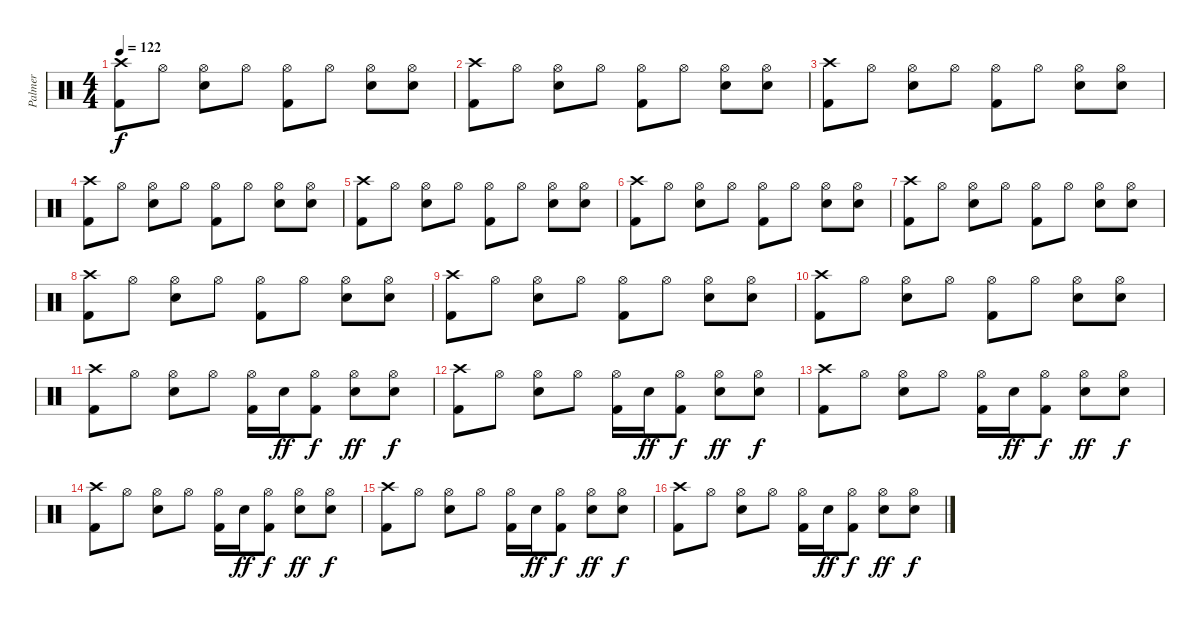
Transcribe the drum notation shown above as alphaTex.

\track ("Palmer" "Palmer") {instrument percussion}
\staff {score}
\articulation defaults
\ts (4 4)
\tempo 122
\clef neutral
\ks c
("Crash high (hit)" "Kick (hit) 2").8{dy f} "Hi-Hat (open)".8 ("Hi-Hat (open)" "Electric Snare (hit)").8 "Hi-Hat (open)".8 ("Hi-Hat (open)" "Kick (hit) 2").8 "Hi-Hat (open)".8 ("Hi-Hat (open)" "Electric Snare (hit)").8 ("Hi-Hat (open)" "Electric Snare (hit)").8 |
("Crash high (hit)" "Kick (hit) 2").8 "Hi-Hat (open)".8 ("Hi-Hat (open)" "Electric Snare (hit)").8 "Hi-Hat (open)".8 ("Hi-Hat (open)" "Kick (hit) 2").8 "Hi-Hat (open)".8 ("Hi-Hat (open)" "Electric Snare (hit)").8 ("Hi-Hat (open)" "Electric Snare (hit)").8 |
("Crash high (hit)" "Kick (hit) 2").8 "Hi-Hat (open)".8 ("Hi-Hat (open)" "Electric Snare (hit)").8 "Hi-Hat (open)".8 ("Hi-Hat (open)" "Kick (hit) 2").8 "Hi-Hat (open)".8 ("Hi-Hat (open)" "Electric Snare (hit)").8 ("Hi-Hat (open)" "Electric Snare (hit)").8 |
("Crash high (hit)" "Kick (hit) 2").8 "Hi-Hat (open)".8 ("Hi-Hat (open)" "Electric Snare (hit)").8 "Hi-Hat (open)".8 ("Hi-Hat (open)" "Kick (hit) 2").8 "Hi-Hat (open)".8 ("Hi-Hat (open)" "Electric Snare (hit)").8 ("Hi-Hat (open)" "Electric Snare (hit)").8 |
("Crash high (hit)" "Kick (hit) 2").8 "Hi-Hat (open)".8 ("Hi-Hat (open)" "Electric Snare (hit)").8 "Hi-Hat (open)".8 ("Hi-Hat (open)" "Kick (hit) 2").8 "Hi-Hat (open)".8 ("Hi-Hat (open)" "Electric Snare (hit)").8 ("Hi-Hat (open)" "Electric Snare (hit)").8 |
("Crash high (hit)" "Kick (hit) 2").8 "Hi-Hat (open)".8 ("Hi-Hat (open)" "Electric Snare (hit)").8 "Hi-Hat (open)".8 ("Hi-Hat (open)" "Kick (hit) 2").8 "Hi-Hat (open)".8 ("Hi-Hat (open)" "Electric Snare (hit)").8 ("Hi-Hat (open)" "Electric Snare (hit)").8 |
("Crash high (hit)" "Kick (hit) 2").8 "Hi-Hat (open)".8 ("Hi-Hat (open)" "Electric Snare (hit)").8 "Hi-Hat (open)".8 ("Hi-Hat (open)" "Kick (hit) 2").8 "Hi-Hat (open)".8 ("Hi-Hat (open)" "Electric Snare (hit)").8 ("Hi-Hat (open)" "Electric Snare (hit)").8 |
("Crash high (hit)" "Kick (hit) 2").8 "Hi-Hat (open)".8 ("Hi-Hat (open)" "Electric Snare (hit)").8 "Hi-Hat (open)".8 ("Hi-Hat (open)" "Kick (hit) 2").8 "Hi-Hat (open)".8 ("Hi-Hat (open)" "Electric Snare (hit)").8 ("Hi-Hat (open)" "Electric Snare (hit)").8 |
("Crash high (hit)" "Kick (hit) 2").8 "Hi-Hat (open)".8 ("Hi-Hat (open)" "Electric Snare (hit)").8 "Hi-Hat (open)".8 ("Hi-Hat (open)" "Kick (hit) 2").8 "Hi-Hat (open)".8 ("Hi-Hat (open)" "Electric Snare (hit)").8 ("Hi-Hat (open)" "Electric Snare (hit)").8 |
("Crash high (hit)" "Kick (hit) 2").8 "Hi-Hat (open)".8 ("Hi-Hat (open)" "Electric Snare (hit)").8 "Hi-Hat (open)".8 ("Hi-Hat (open)" "Kick (hit) 2").8 "Hi-Hat (open)".8 ("Hi-Hat (open)" "Electric Snare (hit)").8 ("Hi-Hat (open)" "Electric Snare (hit)").8 |
("Crash high (hit)" "Kick (hit) 2").8 "Hi-Hat (open)".8 ("Hi-Hat (open)" "Electric Snare (hit)").8 "Hi-Hat (open)".8 ("Hi-Hat (open)" "Kick (hit) 2").16 "Electric Snare (hit)".16{dy ff} ("Hi-Hat (open)" "Kick (hit) 2").8{dy f} ("Hi-Hat (open)" "Electric Snare (hit)").8{dy ff} ("Hi-Hat (open)" "Electric Snare (hit)").8{dy f} |
("Crash high (hit)" "Kick (hit) 2").8 "Hi-Hat (open)".8 ("Hi-Hat (open)" "Electric Snare (hit)").8 "Hi-Hat (open)".8 ("Hi-Hat (open)" "Kick (hit) 2").16 "Electric Snare (hit)".16{dy ff} ("Hi-Hat (open)" "Kick (hit) 2").8{dy f} ("Hi-Hat (open)" "Electric Snare (hit)").8{dy ff} ("Hi-Hat (open)" "Electric Snare (hit)").8{dy f} |
("Crash high (hit)" "Kick (hit) 2").8 "Hi-Hat (open)".8 ("Hi-Hat (open)" "Electric Snare (hit)").8 "Hi-Hat (open)".8 ("Hi-Hat (open)" "Kick (hit) 2").16 "Electric Snare (hit)".16{dy ff} ("Hi-Hat (open)" "Kick (hit) 2").8{dy f} ("Hi-Hat (open)" "Electric Snare (hit)").8{dy ff} ("Hi-Hat (open)" "Electric Snare (hit)").8{dy f} |
("Crash high (hit)" "Kick (hit) 2").8 "Hi-Hat (open)".8 ("Hi-Hat (open)" "Electric Snare (hit)").8 "Hi-Hat (open)".8 ("Hi-Hat (open)" "Kick (hit) 2").16 "Electric Snare (hit)".16{dy ff} ("Hi-Hat (open)" "Kick (hit) 2").8{dy f} ("Hi-Hat (open)" "Electric Snare (hit)").8{dy ff} ("Hi-Hat (open)" "Electric Snare (hit)").8{dy f} |
("Crash high (hit)" "Kick (hit) 2").8 "Hi-Hat (open)".8 ("Hi-Hat (open)" "Electric Snare (hit)").8 "Hi-Hat (open)".8 ("Hi-Hat (open)" "Kick (hit) 2").16 "Electric Snare (hit)".16{dy ff} ("Hi-Hat (open)" "Kick (hit) 2").8{dy f} ("Hi-Hat (open)" "Electric Snare (hit)").8{dy ff} ("Hi-Hat (open)" "Electric Snare (hit)").8{dy f} |
("Crash high (hit)" "Kick (hit) 2").8 "Hi-Hat (open)".8 ("Hi-Hat (open)" "Electric Snare (hit)").8 "Hi-Hat (open)".8 ("Hi-Hat (open)" "Kick (hit) 2").16 "Electric Snare (hit)".16{dy ff} ("Hi-Hat (open)" "Kick (hit) 2").8{dy f} ("Hi-Hat (open)" "Electric Snare (hit)").8{dy ff} ("Hi-Hat (open)" "Electric Snare (hit)").8{dy f}
